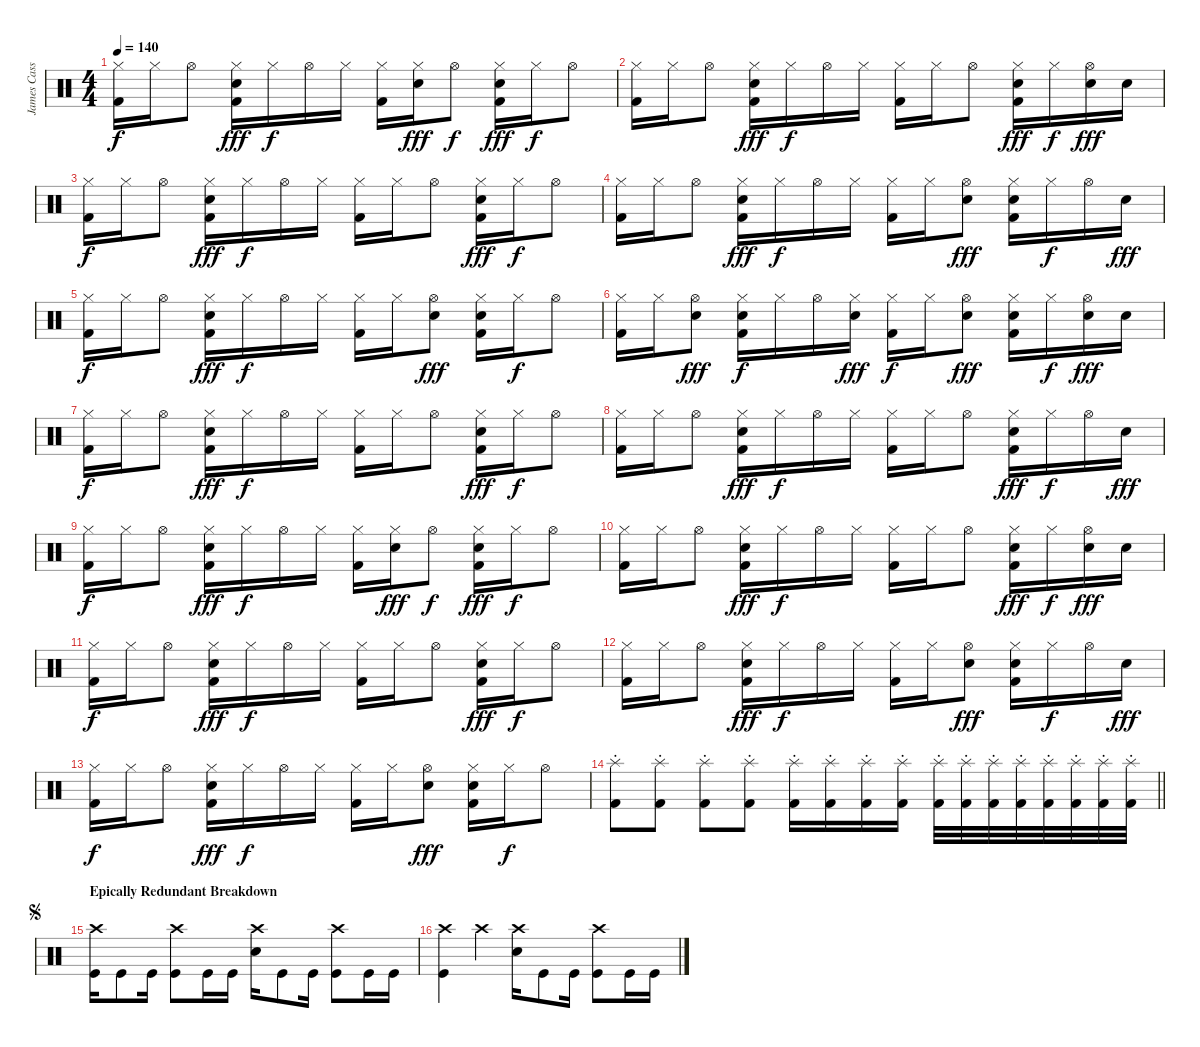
\track ("James Cassells" "James Cass") {instrument percussion}
\staff {score}
\articulation defaults
\ts (4 4)
\tempo 140
\clef neutral
\ks c
("Hi-Hat (closed)" "Kick (hit) 2").16{dy f} "Hi-Hat (closed)".16 "Hi-Hat (open)".8 ("Hi-Hat (closed)" "Hand Clap (hit)" "Kick (hit) 2").16{dy fff} "Hi-Hat (closed)".16{dy f} "Hi-Hat (open)".16 "Hi-Hat (closed)".16 ("Hi-Hat (closed)" "Kick (hit) 2").16 ("Hi-Hat (closed)" "Hand Clap (hit)").16{dy fff} "Hi-Hat (open)".8{dy f} ("Hi-Hat (closed)" "Hand Clap (hit)" "Kick (hit) 2").16{dy fff} "Hi-Hat (closed)".16{dy f} "Hi-Hat (open)".8 |
("Hi-Hat (closed)" "Kick (hit) 2").16 "Hi-Hat (closed)".16 "Hi-Hat (open)".8 ("Hi-Hat (closed)" "Hand Clap (hit)" "Kick (hit) 2").16{dy fff} "Hi-Hat (closed)".16{dy f} "Hi-Hat (open)".16 "Hi-Hat (closed)".16 ("Hi-Hat (closed)" "Kick (hit) 2").16 "Hi-Hat (closed)".16 "Hi-Hat (open)".8 ("Hi-Hat (closed)" "Hand Clap (hit)" "Kick (hit) 2").16{dy fff} "Hi-Hat (closed)".16{dy f} ("Hi-Hat (open)" "Hand Clap (hit)").16{dy fff} "Hand Clap (hit)".16 |
("Hi-Hat (closed)" "Kick (hit) 2").16{dy f} "Hi-Hat (closed)".16 "Hi-Hat (open)".8 ("Hi-Hat (closed)" "Hand Clap (hit)" "Kick (hit) 2").16{dy fff} "Hi-Hat (closed)".16{dy f} "Hi-Hat (open)".16 "Hi-Hat (closed)".16 ("Hi-Hat (closed)" "Kick (hit) 2").16 "Hi-Hat (closed)".16 "Hi-Hat (open)".8 ("Hi-Hat (closed)" "Hand Clap (hit)" "Kick (hit) 2").16{dy fff} "Hi-Hat (closed)".16{dy f} "Hi-Hat (open)".8 |
("Hi-Hat (closed)" "Kick (hit) 2").16 "Hi-Hat (closed)".16 "Hi-Hat (open)".8 ("Hi-Hat (closed)" "Hand Clap (hit)" "Kick (hit) 2").16{dy fff} "Hi-Hat (closed)".16{dy f} "Hi-Hat (open)".16 "Hi-Hat (closed)".16 ("Hi-Hat (closed)" "Kick (hit) 2").16 "Hi-Hat (closed)".16 ("Hi-Hat (open)" "Hand Clap (hit)").8{dy fff} ("Hi-Hat (closed)" "Hand Clap (hit)" "Kick (hit) 2").16 "Hi-Hat (closed)".16{dy f} "Hi-Hat (open)".16 "Hand Clap (hit)".16{dy fff} |
("Hi-Hat (closed)" "Kick (hit) 2").16{dy f} "Hi-Hat (closed)".16 "Hi-Hat (open)".8 ("Hi-Hat (closed)" "Hand Clap (hit)" "Kick (hit) 2").16{dy fff} "Hi-Hat (closed)".16{dy f} "Hi-Hat (open)".16 "Hi-Hat (closed)".16 ("Hi-Hat (closed)" "Kick (hit) 2").16 "Hi-Hat (closed)".16 ("Hi-Hat (open)" "Hand Clap (hit)").8{dy fff} ("Hi-Hat (closed)" "Hand Clap (hit)" "Kick (hit) 2").16 "Hi-Hat (closed)".16{dy f} "Hi-Hat (open)".8 |
("Hi-Hat (closed)" "Kick (hit) 2").16 "Hi-Hat (closed)".16 ("Hi-Hat (open)" "Hand Clap (hit)").8{dy fff} ("Hi-Hat (closed)" "Hand Clap (hit)" "Kick (hit) 2").16{dy f} "Hi-Hat (closed)".16 "Hi-Hat (open)".16 ("Hi-Hat (closed)" "Hand Clap (hit)").16{dy fff} ("Hi-Hat (closed)" "Kick (hit) 2").16{dy f} "Hi-Hat (closed)".16 ("Hi-Hat (open)" "Hand Clap (hit)").8{dy fff} ("Hi-Hat (closed)" "Hand Clap (hit)" "Kick (hit) 2").16 "Hi-Hat (closed)".16{dy f} ("Hi-Hat (open)" "Hand Clap (hit)").16{dy fff} "Hand Clap (hit)".16 |
("Hi-Hat (closed)" "Kick (hit) 2").16{dy f} "Hi-Hat (closed)".16 "Hi-Hat (open)".8 ("Hi-Hat (closed)" "Hand Clap (hit)" "Kick (hit) 2").16{dy fff} "Hi-Hat (closed)".16{dy f} "Hi-Hat (open)".16 "Hi-Hat (closed)".16 ("Hi-Hat (closed)" "Kick (hit) 2").16 "Hi-Hat (closed)".16 "Hi-Hat (open)".8 ("Hi-Hat (closed)" "Hand Clap (hit)" "Kick (hit) 2").16{dy fff} "Hi-Hat (closed)".16{dy f} "Hi-Hat (open)".8 |
("Hi-Hat (closed)" "Kick (hit) 2").16 "Hi-Hat (closed)".16 "Hi-Hat (open)".8 ("Hi-Hat (closed)" "Hand Clap (hit)" "Kick (hit) 2").16{dy fff} "Hi-Hat (closed)".16{dy f} "Hi-Hat (open)".16 "Hi-Hat (closed)".16 ("Hi-Hat (closed)" "Kick (hit) 2").16 "Hi-Hat (closed)".16 "Hi-Hat (open)".8 ("Hi-Hat (closed)" "Hand Clap (hit)" "Kick (hit) 2").16{dy fff} "Hi-Hat (closed)".16{dy f} "Hi-Hat (open)".16 "Hand Clap (hit)".16{dy fff} |
("Hi-Hat (closed)" "Kick (hit) 2").16{dy f} "Hi-Hat (closed)".16 "Hi-Hat (open)".8 ("Hi-Hat (closed)" "Hand Clap (hit)" "Kick (hit) 2").16{dy fff} "Hi-Hat (closed)".16{dy f} "Hi-Hat (open)".16 "Hi-Hat (closed)".16 ("Hi-Hat (closed)" "Kick (hit) 2").16 ("Hi-Hat (closed)" "Hand Clap (hit)").16{dy fff} "Hi-Hat (open)".8{dy f} ("Hi-Hat (closed)" "Hand Clap (hit)" "Kick (hit) 2").16{dy fff} "Hi-Hat (closed)".16{dy f} "Hi-Hat (open)".8 |
("Hi-Hat (closed)" "Kick (hit) 2").16 "Hi-Hat (closed)".16 "Hi-Hat (open)".8 ("Hi-Hat (closed)" "Hand Clap (hit)" "Kick (hit) 2").16{dy fff} "Hi-Hat (closed)".16{dy f} "Hi-Hat (open)".16 "Hi-Hat (closed)".16 ("Hi-Hat (closed)" "Kick (hit) 2").16 "Hi-Hat (closed)".16 "Hi-Hat (open)".8 ("Hi-Hat (closed)" "Hand Clap (hit)" "Kick (hit) 2").16{dy fff} "Hi-Hat (closed)".16{dy f} ("Hi-Hat (open)" "Hand Clap (hit)").16{dy fff} "Hand Clap (hit)".16 |
("Hi-Hat (closed)" "Kick (hit) 2").16{dy f} "Hi-Hat (closed)".16 "Hi-Hat (open)".8 ("Hi-Hat (closed)" "Hand Clap (hit)" "Kick (hit) 2").16{dy fff} "Hi-Hat (closed)".16{dy f} "Hi-Hat (open)".16 "Hi-Hat (closed)".16 ("Hi-Hat (closed)" "Kick (hit) 2").16 "Hi-Hat (closed)".16 "Hi-Hat (open)".8 ("Hi-Hat (closed)" "Hand Clap (hit)" "Kick (hit) 2").16{dy fff} "Hi-Hat (closed)".16{dy f} "Hi-Hat (open)".8 |
("Hi-Hat (closed)" "Kick (hit) 2").16 "Hi-Hat (closed)".16 "Hi-Hat (open)".8 ("Hi-Hat (closed)" "Hand Clap (hit)" "Kick (hit) 2").16{dy fff} "Hi-Hat (closed)".16{dy f} "Hi-Hat (open)".16 "Hi-Hat (closed)".16 ("Hi-Hat (closed)" "Kick (hit) 2").16 "Hi-Hat (closed)".16 ("Hi-Hat (open)" "Hand Clap (hit)").8{dy fff} ("Hi-Hat (closed)" "Hand Clap (hit)" "Kick (hit) 2").16 "Hi-Hat (closed)".16{dy f} "Hi-Hat (open)".16 "Hand Clap (hit)".16{dy fff} |
("Hi-Hat (closed)" "Kick (hit) 2").16{dy f} "Hi-Hat (closed)".16 "Hi-Hat (open)".8 ("Hi-Hat (closed)" "Hand Clap (hit)" "Kick (hit) 2").16{dy fff} "Hi-Hat (closed)".16{dy f} "Hi-Hat (open)".16 "Hi-Hat (closed)".16 ("Hi-Hat (closed)" "Kick (hit) 2").16 "Hi-Hat (closed)".16 ("Hi-Hat (open)" "Hand Clap (hit)").8{dy fff} ("Hi-Hat (closed)" "Hand Clap (hit)" "Kick (hit) 2").16 "Hi-Hat (closed)".16{dy f} "Hi-Hat (open)".8 |
\barLineRight lightlight
("Splash (hit)"{st} "Kick (hit) 2"{st}).8 ("Splash (hit)"{st} "Kick (hit) 2").8 ("Splash (hit)"{st} "Kick (hit) 2").8 ("Splash (hit)"{st} "Kick (hit) 2").8 ("Splash (hit)"{st} "Kick (hit) 2").16 ("Splash (hit)"{st} "Kick (hit) 2").16 ("Splash (hit)"{st} "Kick (hit) 2").16 ("Splash (hit)"{st} "Kick (hit) 2").16 ("Splash (hit)"{st} "Kick (hit) 2").32 ("Splash (hit)"{st} "Kick (hit) 2").32 ("Splash (hit)"{st} "Kick (hit) 2").32 ("Splash (hit)"{st} "Kick (hit) 2").32 ("Splash (hit)"{st} "Kick (hit) 2").32 ("Splash (hit)"{st} "Kick (hit) 2").32 ("Splash (hit)"{st} "Kick (hit) 2").32 ("Splash (hit)"{st} "Kick (hit) 2").32 |
\section ("" "Epically Redundant Breakdown")
\jump segno
("Crash high (hit)" "Kick (hit)").16 "Kick (hit)".8 "Kick (hit)".16 ("Crash high (hit)" "Kick (hit)").8 "Kick (hit)".16 "Kick (hit)".16 ("Crash high (hit)" "Snare (hit) 2").16 "Kick (hit)".8 "Kick (hit)".16 ("Crash high (hit)" "Kick (hit)").8 "Kick (hit)".16 "Kick (hit)".16 |
("Crash high (hit)" "Kick (hit)").4 "Crash high (hit)".4 ("Crash high (hit)" "Snare (hit) 2").16 "Kick (hit)".8 "Kick (hit)".16 ("Crash high (hit)" "Kick (hit)").8 "Kick (hit)".16 "Kick (hit)".16
